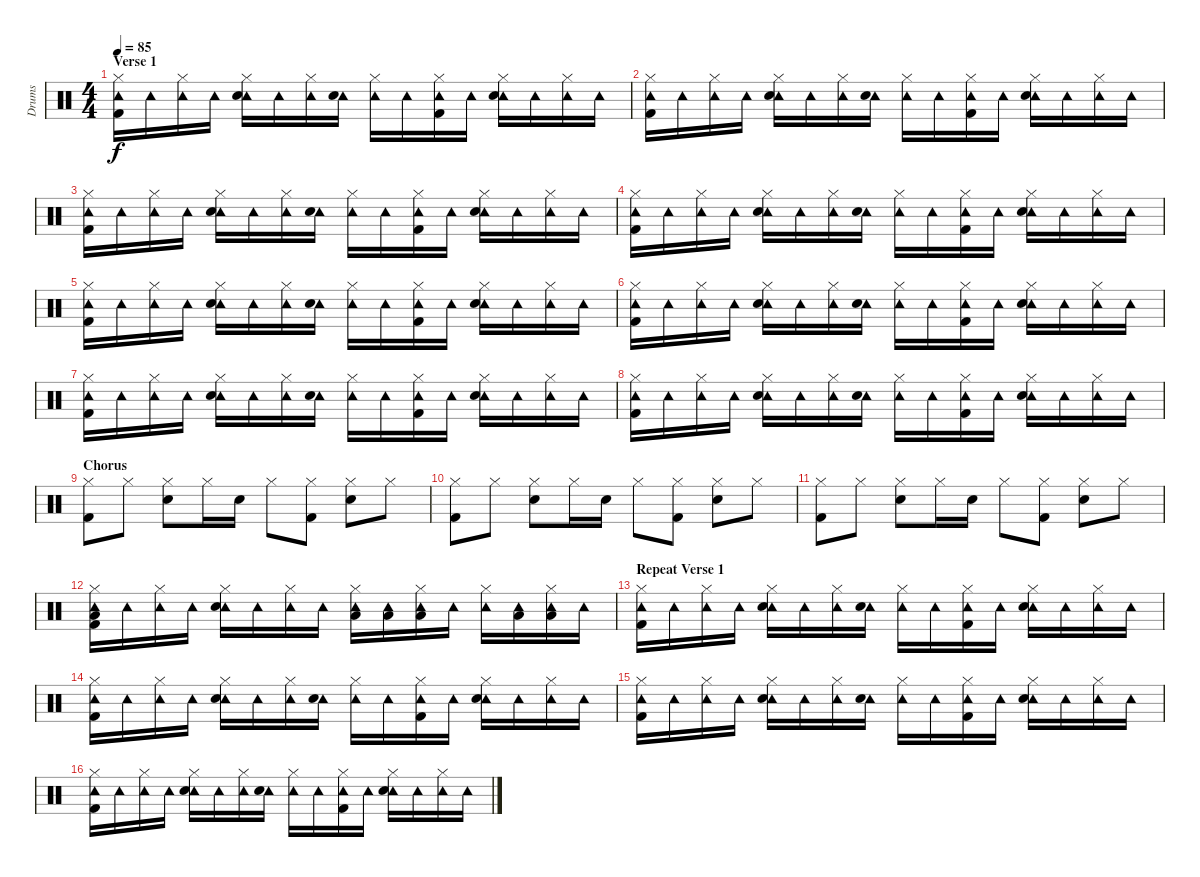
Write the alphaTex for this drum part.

\track ("Drums" "Drums") {instrument percussion}
\staff {score}
\articulation defaults
\ts (4 4)
\section ("" "Verse 1")
\tempo 85
\clef neutral
\ks c
("Tambourine (hit)" "Hi-Hat (closed)" "Kick (hit) 2").16{dy f} "Tambourine (hit)".16 ("Tambourine (hit)" "Hi-Hat (closed)").16 "Tambourine (hit)".16 ("Tambourine (hit)" "Hi-Hat (closed)" "Snare (hit) 2").16 "Tambourine (hit)".16 ("Tambourine (hit)" "Hi-Hat (closed)").16 ("Tambourine (hit)" "Snare (hit) 2").16 ("Tambourine (hit)" "Hi-Hat (closed)").16 "Tambourine (hit)".16 ("Tambourine (hit)" "Hi-Hat (closed)" "Kick (hit) 2").16 "Tambourine (hit)".16 ("Tambourine (hit)" "Hi-Hat (closed)" "Snare (hit) 2").16 "Tambourine (hit)".16 ("Tambourine (hit)" "Hi-Hat (closed)").16 "Tambourine (hit)".16 |
("Tambourine (hit)" "Hi-Hat (closed)" "Kick (hit) 2").16 "Tambourine (hit)".16 ("Tambourine (hit)" "Hi-Hat (closed)").16 "Tambourine (hit)".16 ("Tambourine (hit)" "Hi-Hat (closed)" "Snare (hit) 2").16 "Tambourine (hit)".16 ("Tambourine (hit)" "Hi-Hat (closed)").16 ("Tambourine (hit)" "Snare (hit) 2").16 ("Tambourine (hit)" "Hi-Hat (closed)").16 "Tambourine (hit)".16 ("Tambourine (hit)" "Hi-Hat (closed)" "Kick (hit) 2").16 "Tambourine (hit)".16 ("Tambourine (hit)" "Hi-Hat (closed)" "Snare (hit) 2").16 "Tambourine (hit)".16 ("Tambourine (hit)" "Hi-Hat (closed)").16 "Tambourine (hit)".16 |
("Tambourine (hit)" "Hi-Hat (closed)" "Kick (hit) 2").16 "Tambourine (hit)".16 ("Tambourine (hit)" "Hi-Hat (closed)").16 "Tambourine (hit)".16 ("Tambourine (hit)" "Hi-Hat (closed)" "Snare (hit) 2").16 "Tambourine (hit)".16 ("Tambourine (hit)" "Hi-Hat (closed)").16 ("Tambourine (hit)" "Snare (hit) 2").16 ("Tambourine (hit)" "Hi-Hat (closed)").16 "Tambourine (hit)".16 ("Tambourine (hit)" "Hi-Hat (closed)" "Kick (hit) 2").16 "Tambourine (hit)".16 ("Tambourine (hit)" "Hi-Hat (closed)" "Snare (hit) 2").16 "Tambourine (hit)".16 ("Tambourine (hit)" "Hi-Hat (closed)").16 "Tambourine (hit)".16 |
("Tambourine (hit)" "Hi-Hat (closed)" "Kick (hit) 2").16 "Tambourine (hit)".16 ("Tambourine (hit)" "Hi-Hat (closed)").16 "Tambourine (hit)".16 ("Tambourine (hit)" "Hi-Hat (closed)" "Snare (hit) 2").16 "Tambourine (hit)".16 ("Tambourine (hit)" "Hi-Hat (closed)").16 ("Tambourine (hit)" "Snare (hit) 2").16 ("Tambourine (hit)" "Hi-Hat (closed)").16 "Tambourine (hit)".16 ("Tambourine (hit)" "Hi-Hat (closed)" "Kick (hit) 2").16 "Tambourine (hit)".16 ("Tambourine (hit)" "Hi-Hat (closed)" "Snare (hit) 2").16 "Tambourine (hit)".16 ("Tambourine (hit)" "Hi-Hat (closed)").16 "Tambourine (hit)".16 |
("Tambourine (hit)" "Hi-Hat (closed)" "Kick (hit) 2").16 "Tambourine (hit)".16 ("Tambourine (hit)" "Hi-Hat (closed)").16 "Tambourine (hit)".16 ("Tambourine (hit)" "Hi-Hat (closed)" "Snare (hit) 2").16 "Tambourine (hit)".16 ("Tambourine (hit)" "Hi-Hat (closed)").16 ("Tambourine (hit)" "Snare (hit) 2").16 ("Tambourine (hit)" "Hi-Hat (closed)").16 "Tambourine (hit)".16 ("Tambourine (hit)" "Hi-Hat (closed)" "Kick (hit) 2").16 "Tambourine (hit)".16 ("Tambourine (hit)" "Hi-Hat (closed)" "Snare (hit) 2").16 "Tambourine (hit)".16 ("Tambourine (hit)" "Hi-Hat (closed)").16 "Tambourine (hit)".16 |
("Tambourine (hit)" "Hi-Hat (closed)" "Kick (hit) 2").16 "Tambourine (hit)".16 ("Tambourine (hit)" "Hi-Hat (closed)").16 "Tambourine (hit)".16 ("Tambourine (hit)" "Hi-Hat (closed)" "Snare (hit) 2").16 "Tambourine (hit)".16 ("Tambourine (hit)" "Hi-Hat (closed)").16 ("Tambourine (hit)" "Snare (hit) 2").16 ("Tambourine (hit)" "Hi-Hat (closed)").16 "Tambourine (hit)".16 ("Tambourine (hit)" "Hi-Hat (closed)" "Kick (hit) 2").16 "Tambourine (hit)".16 ("Tambourine (hit)" "Hi-Hat (closed)" "Snare (hit) 2").16 "Tambourine (hit)".16 ("Tambourine (hit)" "Hi-Hat (closed)").16 "Tambourine (hit)".16 |
("Tambourine (hit)" "Hi-Hat (closed)" "Kick (hit) 2").16 "Tambourine (hit)".16 ("Tambourine (hit)" "Hi-Hat (closed)").16 "Tambourine (hit)".16 ("Tambourine (hit)" "Hi-Hat (closed)" "Snare (hit) 2").16 "Tambourine (hit)".16 ("Tambourine (hit)" "Hi-Hat (closed)").16 ("Tambourine (hit)" "Snare (hit) 2").16 ("Tambourine (hit)" "Hi-Hat (closed)").16 "Tambourine (hit)".16 ("Tambourine (hit)" "Hi-Hat (closed)" "Kick (hit) 2").16 "Tambourine (hit)".16 ("Tambourine (hit)" "Hi-Hat (closed)" "Snare (hit) 2").16 "Tambourine (hit)".16 ("Tambourine (hit)" "Hi-Hat (closed)").16 "Tambourine (hit)".16 |
("Tambourine (hit)" "Hi-Hat (closed)" "Kick (hit) 2").16 "Tambourine (hit)".16 ("Tambourine (hit)" "Hi-Hat (closed)").16 "Tambourine (hit)".16 ("Tambourine (hit)" "Hi-Hat (closed)" "Snare (hit) 2").16 "Tambourine (hit)".16 ("Tambourine (hit)" "Hi-Hat (closed)").16 ("Tambourine (hit)" "Snare (hit) 2").16 ("Tambourine (hit)" "Hi-Hat (closed)").16 "Tambourine (hit)".16 ("Tambourine (hit)" "Hi-Hat (closed)" "Kick (hit) 2").16 "Tambourine (hit)".16 ("Tambourine (hit)" "Hi-Hat (closed)" "Snare (hit) 2").16 "Tambourine (hit)".16 ("Tambourine (hit)" "Hi-Hat (closed)").16 "Tambourine (hit)".16 |
\section ("" "Chorus")
("Hi-Hat (closed)" "Kick (hit) 2").8 "Hi-Hat (closed)".8 ("Hi-Hat (closed)" "Snare (hit) 2").8 "Hi-Hat (closed)".16 "Snare (hit) 2".16 "Hi-Hat (closed)".8 ("Hi-Hat (closed)" "Kick (hit) 2").8 ("Hi-Hat (closed)" "Snare (hit) 2").8 "Hi-Hat (closed)".8 |
("Hi-Hat (closed)" "Kick (hit) 2").8 "Hi-Hat (closed)".8 ("Hi-Hat (closed)" "Snare (hit) 2").8 "Hi-Hat (closed)".16 "Snare (hit) 2".16 "Hi-Hat (closed)".8 ("Hi-Hat (closed)" "Kick (hit) 2").8 ("Hi-Hat (closed)" "Snare (hit) 2").8 "Hi-Hat (closed)".8 |
("Hi-Hat (closed)" "Kick (hit) 2").8 "Hi-Hat (closed)".8 ("Hi-Hat (closed)" "Snare (hit) 2").8 "Hi-Hat (closed)".16 "Snare (hit) 2".16 "Hi-Hat (closed)".8 ("Hi-Hat (closed)" "Kick (hit) 2").8 ("Hi-Hat (closed)" "Snare (hit) 2").8 "Hi-Hat (closed)".8 |
("Tambourine (hit)" "Hi-Hat (closed)" "Low Tom (hit)" "Kick (hit) 2").16 "Tambourine (hit)".16 ("Tambourine (hit)" "Hi-Hat (closed)").16 "Tambourine (hit)".16 ("Tambourine (hit)" "Hi-Hat (closed)" "Snare (hit) 2").16 "Tambourine (hit)".16 ("Tambourine (hit)" "Hi-Hat (closed)").16 "Tambourine (hit)".16 ("Tambourine (hit)" "Hi-Hat (closed)" "Low Tom (hit)").16 ("Tambourine (hit)" "Low Tom (hit)").16 ("Tambourine (hit)" "Hi-Hat (closed)" "Low Tom (hit)").16 "Tambourine (hit)".16 ("Tambourine (hit)" "Hi-Hat (closed)").16 ("Tambourine (hit)" "Low Tom (hit)").16 ("Tambourine (hit)" "Hi-Hat (closed)" "Low Tom (hit)").16 "Tambourine (hit)".16 |
\section ("" "Repeat Verse 1")
("Tambourine (hit)" "Hi-Hat (closed)" "Kick (hit) 2").16 "Tambourine (hit)".16 ("Tambourine (hit)" "Hi-Hat (closed)").16 "Tambourine (hit)".16 ("Tambourine (hit)" "Hi-Hat (closed)" "Snare (hit) 2").16 "Tambourine (hit)".16 ("Tambourine (hit)" "Hi-Hat (closed)").16 ("Tambourine (hit)" "Snare (hit) 2").16 ("Tambourine (hit)" "Hi-Hat (closed)").16 "Tambourine (hit)".16 ("Tambourine (hit)" "Hi-Hat (closed)" "Kick (hit) 2").16 "Tambourine (hit)".16 ("Tambourine (hit)" "Hi-Hat (closed)" "Snare (hit) 2").16 "Tambourine (hit)".16 ("Tambourine (hit)" "Hi-Hat (closed)").16 "Tambourine (hit)".16 |
("Tambourine (hit)" "Hi-Hat (closed)" "Kick (hit) 2").16 "Tambourine (hit)".16 ("Tambourine (hit)" "Hi-Hat (closed)").16 "Tambourine (hit)".16 ("Tambourine (hit)" "Hi-Hat (closed)" "Snare (hit) 2").16 "Tambourine (hit)".16 ("Tambourine (hit)" "Hi-Hat (closed)").16 ("Tambourine (hit)" "Snare (hit) 2").16 ("Tambourine (hit)" "Hi-Hat (closed)").16 "Tambourine (hit)".16 ("Tambourine (hit)" "Hi-Hat (closed)" "Kick (hit) 2").16 "Tambourine (hit)".16 ("Tambourine (hit)" "Hi-Hat (closed)" "Snare (hit) 2").16 "Tambourine (hit)".16 ("Tambourine (hit)" "Hi-Hat (closed)").16 "Tambourine (hit)".16 |
("Tambourine (hit)" "Hi-Hat (closed)" "Kick (hit) 2").16 "Tambourine (hit)".16 ("Tambourine (hit)" "Hi-Hat (closed)").16 "Tambourine (hit)".16 ("Tambourine (hit)" "Hi-Hat (closed)" "Snare (hit) 2").16 "Tambourine (hit)".16 ("Tambourine (hit)" "Hi-Hat (closed)").16 ("Tambourine (hit)" "Snare (hit) 2").16 ("Tambourine (hit)" "Hi-Hat (closed)").16 "Tambourine (hit)".16 ("Tambourine (hit)" "Hi-Hat (closed)" "Kick (hit) 2").16 "Tambourine (hit)".16 ("Tambourine (hit)" "Hi-Hat (closed)" "Snare (hit) 2").16 "Tambourine (hit)".16 ("Tambourine (hit)" "Hi-Hat (closed)").16 "Tambourine (hit)".16 |
("Tambourine (hit)" "Hi-Hat (closed)" "Kick (hit) 2").16 "Tambourine (hit)".16 ("Tambourine (hit)" "Hi-Hat (closed)").16 "Tambourine (hit)".16 ("Tambourine (hit)" "Hi-Hat (closed)" "Snare (hit) 2").16 "Tambourine (hit)".16 ("Tambourine (hit)" "Hi-Hat (closed)").16 ("Tambourine (hit)" "Snare (hit) 2").16 ("Tambourine (hit)" "Hi-Hat (closed)").16 "Tambourine (hit)".16 ("Tambourine (hit)" "Hi-Hat (closed)" "Kick (hit) 2").16 "Tambourine (hit)".16 ("Tambourine (hit)" "Hi-Hat (closed)" "Snare (hit) 2").16 "Tambourine (hit)".16 ("Tambourine (hit)" "Hi-Hat (closed)").16 "Tambourine (hit)".16
